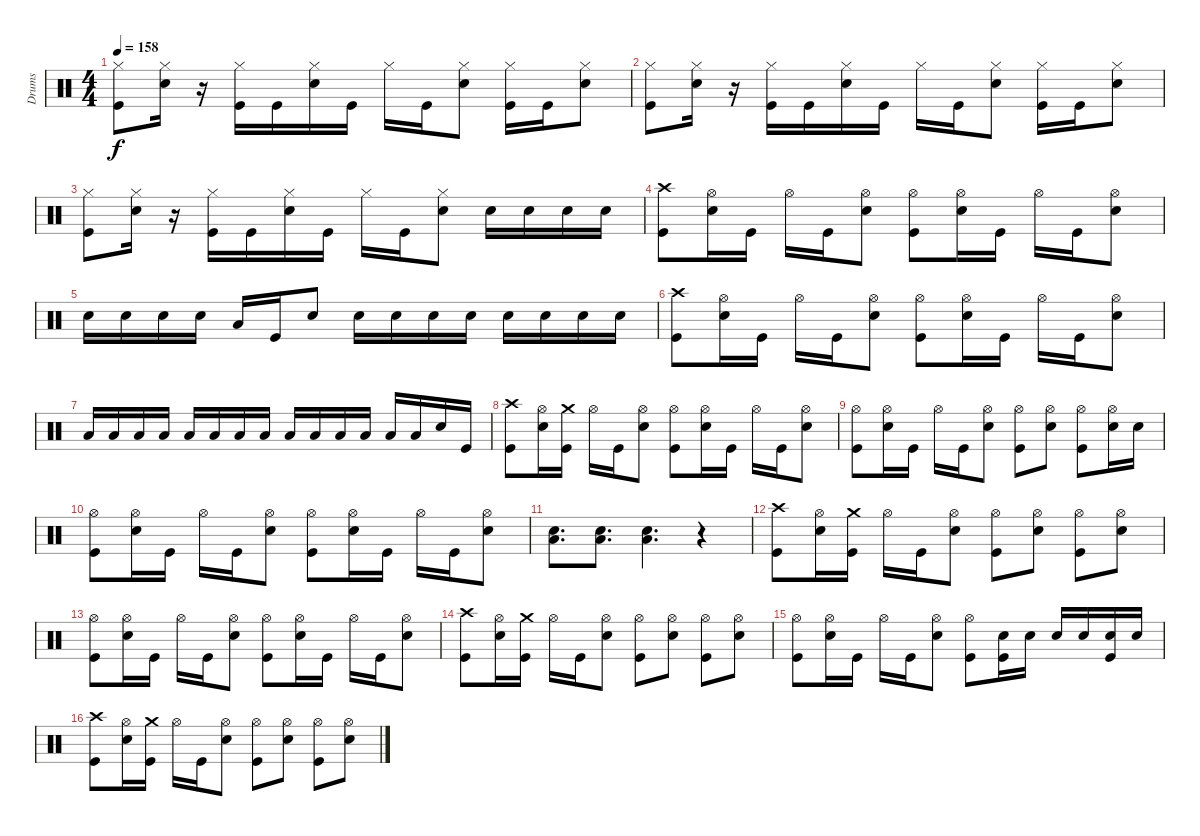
\track ("Drums" "Drums") {instrument percussion}
\staff {score}
\articulation defaults
\ts (4 4)
\tempo 158
\clef neutral
\ks c
("Hi-Hat (closed)" "Kick (hit)").8{dy f} ("Hi-Hat (closed)" "Snare (hit) 2").16 r.16 ("Hi-Hat (closed)" "Kick (hit)").16 "Kick (hit)".16 ("Hi-Hat (closed)" "Snare (hit) 2").16 "Kick (hit)".16 "Hi-Hat (closed)".16 "Kick (hit)".16 ("Hi-Hat (closed)" "Snare (hit) 2").8 ("Hi-Hat (closed)" "Kick (hit)").16 "Kick (hit)".16 ("Hi-Hat (closed)" "Snare (hit) 2").8 |
("Hi-Hat (closed)" "Kick (hit)").8 ("Hi-Hat (closed)" "Snare (hit) 2").16 r.16 ("Hi-Hat (closed)" "Kick (hit)").16 "Kick (hit)".16 ("Hi-Hat (closed)" "Snare (hit) 2").16 "Kick (hit)".16 "Hi-Hat (closed)".16 "Kick (hit)".16 ("Hi-Hat (closed)" "Snare (hit) 2").8 ("Hi-Hat (closed)" "Kick (hit)").16 "Kick (hit)".16 ("Hi-Hat (closed)" "Snare (hit) 2").8 |
("Hi-Hat (closed)" "Kick (hit)").8 ("Hi-Hat (closed)" "Snare (hit) 2").16 r.16 ("Hi-Hat (closed)" "Kick (hit)").16 "Kick (hit)".16 ("Hi-Hat (closed)" "Snare (hit) 2").16 "Kick (hit)".16 "Hi-Hat (closed)".16 "Kick (hit)".16 ("Hi-Hat (closed)" "Snare (hit) 2").8 "Snare (hit) 2".16 "Snare (hit) 2".16 "Snare (hit) 2".16 "Snare (hit) 2".16 |
("Crash high (hit)" "Kick (hit)").8 ("Hi-Hat (open)" "Snare (hit) 2").16 "Kick (hit)".16 "Hi-Hat (open)".16 "Kick (hit)".16 ("Hi-Hat (open)" "Snare (hit) 2").8 ("Hi-Hat (open)" "Kick (hit)").8 ("Hi-Hat (open)" "Snare (hit) 2").16 "Kick (hit)".16 "Hi-Hat (open)".16 "Kick (hit)".16 ("Hi-Hat (open)" "Snare (hit) 2").8 |
"Snare (hit) 2".16 "Snare (hit) 2".16 "Snare (hit) 2".16 "Snare (hit) 2".16 "Low Tom (hit)".16 "Kick (hit)".16 "Snare (hit) 2".8 "Snare (hit) 2".16 "Snare (hit) 2".16 "Snare (hit) 2".16 "Snare (hit) 2".16 "Snare (hit) 2".16 "Snare (hit) 2".16 "Snare (hit) 2".16 "Snare (hit) 2".16 |
("Crash high (hit)" "Kick (hit)").8 ("Hi-Hat (open)" "Snare (hit) 2").16 "Kick (hit)".16 "Hi-Hat (open)".16 "Kick (hit)".16 ("Hi-Hat (open)" "Snare (hit) 2").8 ("Hi-Hat (open)" "Kick (hit)").8 ("Hi-Hat (open)" "Snare (hit) 2").16 "Kick (hit)".16 "Hi-Hat (open)".16 "Kick (hit)".16 ("Hi-Hat (open)" "Snare (hit) 2").8 |
"Low Tom (hit)".16 "Low Tom (hit)".16 "Low Tom (hit)".16 "Low Tom (hit)".16 "Low Tom (hit)".16 "Low Tom (hit)".16 "Low Tom (hit)".16 "Low Tom (hit)".16 "Low Tom (hit)".16 "Low Tom (hit)".16 "Low Tom (hit)".16 "Low Tom (hit)".16 "Low Tom (hit)".16 "Low Tom (hit)".16 "Snare (hit) 2".16 "Kick (hit)".16 |
("Crash high (hit)" "Kick (hit)").8 ("Hi-Hat (open)" "Snare (hit) 2").16 ("Crash medium (hit)" "Kick (hit)").16 "Hi-Hat (open)".16 "Kick (hit)".16 ("Hi-Hat (open)" "Snare (hit) 2").8 ("Hi-Hat (open)" "Kick (hit)").8 ("Hi-Hat (open)" "Snare (hit) 2").16 "Kick (hit)".16 "Hi-Hat (open)".16 "Kick (hit)".16 ("Hi-Hat (open)" "Snare (hit) 2").8 |
("Hi-Hat (open)" "Kick (hit)").8 ("Hi-Hat (open)" "Snare (hit) 2").16 "Kick (hit)".16 "Hi-Hat (open)".16 "Kick (hit)".16 ("Hi-Hat (open)" "Snare (hit) 2").8 ("Hi-Hat (open)" "Kick (hit)").8 ("Hi-Hat (open)" "Snare (hit) 2").8 ("Hi-Hat (open)" "Kick (hit)").8 ("Hi-Hat (open)" "Snare (hit) 2").16 "Snare (hit) 2".16 |
("Hi-Hat (open)" "Kick (hit)").8 ("Hi-Hat (open)" "Snare (hit) 2").16 "Kick (hit)".16 "Hi-Hat (open)".16 "Kick (hit)".16 ("Hi-Hat (open)" "Snare (hit) 2").8 ("Hi-Hat (open)" "Kick (hit)").8 ("Hi-Hat (open)" "Snare (hit) 2").16 "Kick (hit)".16 "Hi-Hat (open)".16 "Kick (hit)".16 ("Hi-Hat (open)" "Snare (hit) 2").8 |
("Snare (hit) 2" "Low Tom (hit)").8{d} ("Snare (hit) 2" "Low Tom (hit)").8{d} ("Snare (hit) 2" "Low Tom (hit)").4{d} r.4 |
("Crash high (hit)" "Kick (hit)").8 ("Hi-Hat (open)" "Snare (hit) 2").16 ("Crash medium (hit)" "Kick (hit)").16 "Hi-Hat (open)".16 "Kick (hit)".16 ("Hi-Hat (open)" "Snare (hit) 2").8 ("Hi-Hat (open)" "Kick (hit)").8 ("Hi-Hat (open)" "Snare (hit) 2").8 ("Hi-Hat (open)" "Kick (hit)").8 ("Hi-Hat (open)" "Snare (hit) 2").8 |
("Hi-Hat (open)" "Kick (hit)").8 ("Hi-Hat (open)" "Snare (hit) 2").16 "Kick (hit)".16 "Hi-Hat (open)".16 "Kick (hit)".16 ("Hi-Hat (open)" "Snare (hit) 2").8 ("Hi-Hat (open)" "Kick (hit)").8 ("Hi-Hat (open)" "Snare (hit) 2").16 "Kick (hit)".16 "Hi-Hat (open)".16 "Kick (hit)".16 ("Hi-Hat (open)" "Snare (hit) 2").8 |
("Crash high (hit)" "Kick (hit)").8 ("Hi-Hat (open)" "Snare (hit) 2").16 ("Crash medium (hit)" "Kick (hit)").16 "Hi-Hat (open)".16 "Kick (hit)".16 ("Hi-Hat (open)" "Snare (hit) 2").8 ("Hi-Hat (open)" "Kick (hit)").8 ("Hi-Hat (open)" "Snare (hit) 2").8 ("Hi-Hat (open)" "Kick (hit)").8 ("Hi-Hat (open)" "Snare (hit) 2").8 |
("Hi-Hat (open)" "Kick (hit)").8 ("Hi-Hat (open)" "Snare (hit) 2").16 "Kick (hit)".16 "Hi-Hat (open)".16 "Kick (hit)".16 ("Hi-Hat (open)" "Snare (hit) 2").8 ("Hi-Hat (open)" "Kick (hit)").8 ("Kick (hit)" "Snare (hit) 2").16 "Snare (hit) 2".16 "Snare (hit) 2".16 "Snare (hit) 2".16 ("Kick (hit)" "Snare (hit) 2").16 "Snare (hit) 2".16 |
("Crash high (hit)" "Kick (hit)").8 ("Hi-Hat (open)" "Snare (hit) 2").16 ("Crash medium (hit)" "Kick (hit)").16 "Hi-Hat (open)".16 "Kick (hit)".16 ("Hi-Hat (open)" "Snare (hit) 2").8 ("Hi-Hat (open)" "Kick (hit)").8 ("Hi-Hat (open)" "Snare (hit) 2").8 ("Hi-Hat (open)" "Kick (hit)").8 ("Hi-Hat (open)" "Snare (hit) 2").8
